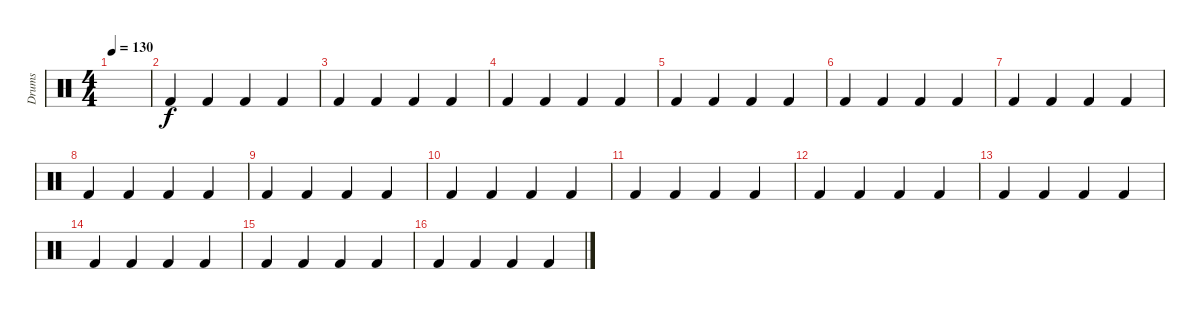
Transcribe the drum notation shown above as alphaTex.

\track ("Drums" "Drums") {instrument percussion}
\staff {score}
\articulation defaults
\ts (4 4)
\tempo 130
\clef neutral
\ks c
|
"Kick (hit) 2".4 "Kick (hit) 2".4 "Kick (hit) 2".4 "Kick (hit) 2".4 |
"Kick (hit) 2".4 "Kick (hit) 2".4 "Kick (hit) 2".4 "Kick (hit) 2".4 |
"Kick (hit) 2".4 "Kick (hit) 2".4 "Kick (hit) 2".4 "Kick (hit) 2".4 |
"Kick (hit) 2".4 "Kick (hit) 2".4 "Kick (hit) 2".4 "Kick (hit) 2".4 |
"Kick (hit) 2".4 "Kick (hit) 2".4 "Kick (hit) 2".4 "Kick (hit) 2".4 |
"Kick (hit) 2".4 "Kick (hit) 2".4 "Kick (hit) 2".4 "Kick (hit) 2".4 |
"Kick (hit) 2".4 "Kick (hit) 2".4 "Kick (hit) 2".4 "Kick (hit) 2".4 |
"Kick (hit) 2".4 "Kick (hit) 2".4 "Kick (hit) 2".4 "Kick (hit) 2".4 |
"Kick (hit) 2".4 "Kick (hit) 2".4 "Kick (hit) 2".4 "Kick (hit) 2".4 |
"Kick (hit) 2".4 "Kick (hit) 2".4 "Kick (hit) 2".4 "Kick (hit) 2".4 |
"Kick (hit) 2".4 "Kick (hit) 2".4 "Kick (hit) 2".4 "Kick (hit) 2".4 |
"Kick (hit) 2".4 "Kick (hit) 2".4 "Kick (hit) 2".4 "Kick (hit) 2".4 |
"Kick (hit) 2".4 "Kick (hit) 2".4 "Kick (hit) 2".4 "Kick (hit) 2".4 |
"Kick (hit) 2".4 "Kick (hit) 2".4 "Kick (hit) 2".4 "Kick (hit) 2".4 |
"Kick (hit) 2".4 "Kick (hit) 2".4 "Kick (hit) 2".4 "Kick (hit) 2".4
